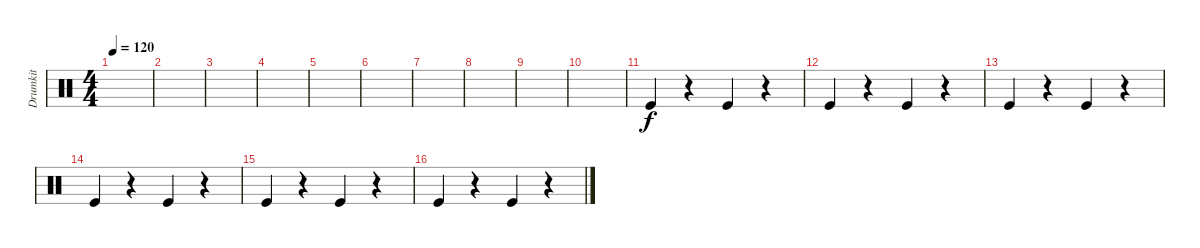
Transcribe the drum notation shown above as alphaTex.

\track ("Drumkit" "Drumkit") {instrument percussion}
\staff {score}
\articulation defaults
\ts (4 4)
\tempo 120
\clef neutral
\ks c
|
|
|
|
|
|
|
|
|
|
"Kick (hit)".4 r.4 "Kick (hit)".4 r.4 |
"Kick (hit)".4 r.4 "Kick (hit)".4 r.4 |
"Kick (hit)".4 r.4 "Kick (hit)".4 r.4 |
"Kick (hit)".4 r.4 "Kick (hit)".4 r.4 |
"Kick (hit)".4 r.4 "Kick (hit)".4 r.4 |
"Kick (hit)".4 r.4 "Kick (hit)".4 r.4
